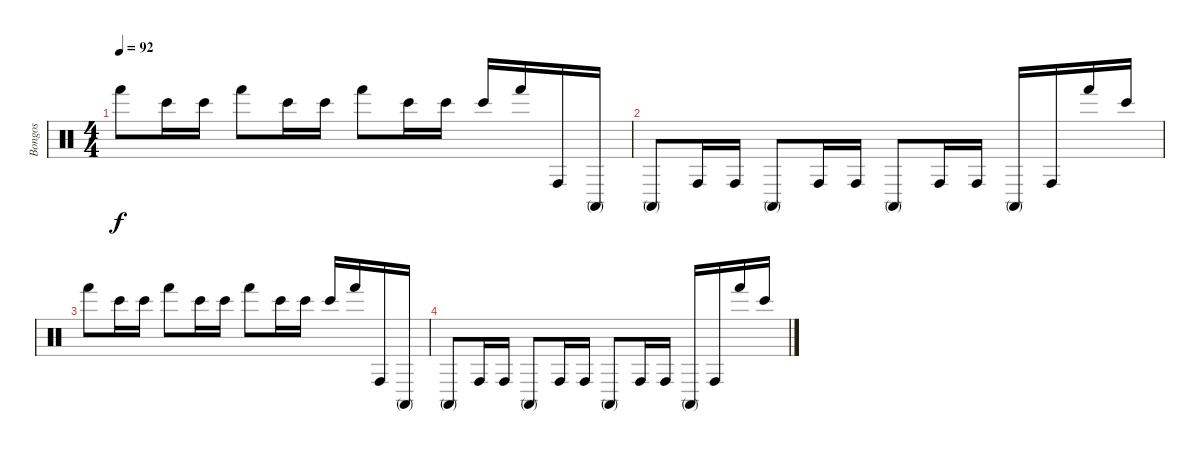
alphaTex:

\track ("Bongos" "Bongos") {instrument percussion}
\staff {score}
\articulation defaults
\ts (4 4)
\tempo 92
\clef neutral
\ks c "Hand (hit)".8{dy f} "Bongo High (hit)".16 "Bongo High (hit)".16 "Hand (hit)".8 "Bongo High (hit)".16 "Bongo High (hit)".16 "Hand (hit)".8 "Bongo High (hit)".16 "Bongo High (hit)".16 "Bongo High (hit)".16 "Hand (hit)".16 "Conga high (hit)".16 "Conga high (mute)".16
|
"Conga high (mute)".8 "Conga high (hit)".16 "Conga high (hit)".16 "Conga high (mute)".8 "Conga high (hit)".16 "Conga high (hit)".16 "Conga high (mute)".8 "Conga high (hit)".16 "Conga high (hit)".16 "Conga high (mute)".16 "Conga high (hit)".16 "Hand (hit)".16 "Bongo High (hit)".16 |
"Hand (hit)".8 "Bongo High (hit)".16 "Bongo High (hit)".16 "Hand (hit)".8 "Bongo High (hit)".16 "Bongo High (hit)".16 "Hand (hit)".8 "Bongo High (hit)".16 "Bongo High (hit)".16 "Bongo High (hit)".16 "Hand (hit)".16 "Conga high (hit)".16 "Conga high (mute)".16 |
"Conga high (mute)".8 "Conga high (hit)".16 "Conga high (hit)".16 "Conga high (mute)".8 "Conga high (hit)".16 "Conga high (hit)".16 "Conga high (mute)".8 "Conga high (hit)".16 "Conga high (hit)".16 "Conga high (mute)".16 "Conga high (hit)".16 "Hand (hit)".16 "Bongo High (hit)".16
